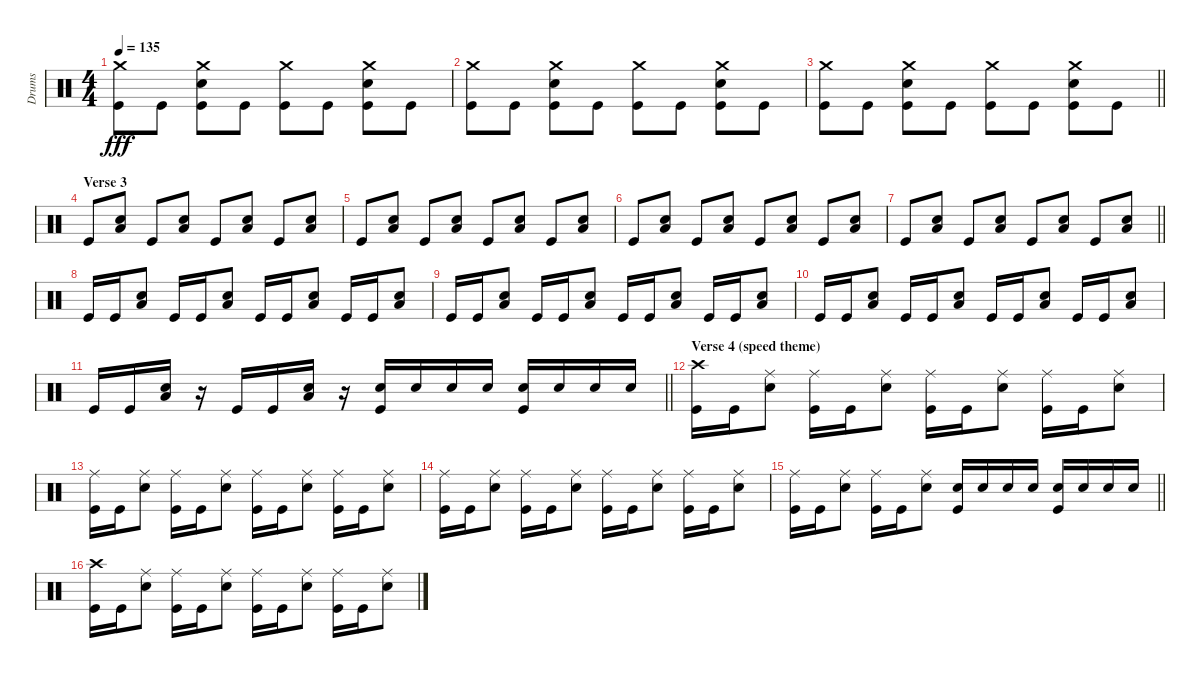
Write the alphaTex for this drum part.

\track ("Drums" "Drums") {instrument percussion}
\staff {score}
\articulation defaults
\ts (4 4)
\tempo 135
\clef neutral
\ks c
("Crash medium (hit)" "Kick (hit)").8{dy fff} "Kick (hit)".8 ("Crash medium (hit)" "Snare (hit) 2" "Kick (hit)").8 "Kick (hit)".8 ("Crash medium (hit)" "Kick (hit)").8 "Kick (hit)".8 ("Crash medium (hit)" "Snare (hit) 2" "Kick (hit)").8 "Kick (hit)".8 |
("Crash medium (hit)" "Kick (hit)").8 "Kick (hit)".8 ("Crash medium (hit)" "Snare (hit) 2" "Kick (hit)").8 "Kick (hit)".8 ("Crash medium (hit)" "Kick (hit)").8 "Kick (hit)".8 ("Crash medium (hit)" "Snare (hit) 2" "Kick (hit)").8 "Kick (hit)".8 |
\barLineRight lightlight
("Crash medium (hit)" "Kick (hit)").8 "Kick (hit)".8 ("Crash medium (hit)" "Snare (hit) 2" "Kick (hit)").8 "Kick (hit)".8 ("Crash medium (hit)" "Kick (hit)").8 "Kick (hit)".8 ("Crash medium (hit)" "Snare (hit) 2" "Kick (hit)").8 "Kick (hit)".8 |
\section ("" "Verse 3")
"Kick (hit)".8 ("Low Tom (hit)" "Snare (hit) 2").8 "Kick (hit)".8 ("Low Tom (hit)" "Snare (hit) 2").8 "Kick (hit)".8 ("Low Tom (hit)" "Snare (hit) 2").8 "Kick (hit)".8 ("Low Tom (hit)" "Snare (hit) 2").8 |
"Kick (hit)".8 ("Low Tom (hit)" "Snare (hit) 2").8 "Kick (hit)".8 ("Low Tom (hit)" "Snare (hit) 2").8 "Kick (hit)".8 ("Low Tom (hit)" "Snare (hit) 2").8 "Kick (hit)".8 ("Low Tom (hit)" "Snare (hit) 2").8 |
"Kick (hit)".8 ("Low Tom (hit)" "Snare (hit) 2").8 "Kick (hit)".8 ("Low Tom (hit)" "Snare (hit) 2").8 "Kick (hit)".8 ("Low Tom (hit)" "Snare (hit) 2").8 "Kick (hit)".8 ("Low Tom (hit)" "Snare (hit) 2").8 |
\barLineRight lightlight "Kick (hit)".8
("Low Tom (hit)" "Snare (hit) 2").8 "Kick (hit)".8 ("Low Tom (hit)" "Snare (hit) 2").8 "Kick (hit)".8 ("Low Tom (hit)" "Snare (hit) 2").8 "Kick (hit)".8 ("Low Tom (hit)" "Snare (hit) 2").8 |
"Kick (hit)".16 "Kick (hit)".16 ("Low Tom (hit)" "Snare (hit) 2").8 "Kick (hit)".16 "Kick (hit)".16 ("Low Tom (hit)" "Snare (hit) 2").8 "Kick (hit)".16 "Kick (hit)".16 ("Low Tom (hit)" "Snare (hit) 2").8 "Kick (hit)".16 "Kick (hit)".16 ("Low Tom (hit)" "Snare (hit) 2").8 |
"Kick (hit)".16 "Kick (hit)".16 ("Low Tom (hit)" "Snare (hit) 2").8 "Kick (hit)".16 "Kick (hit)".16 ("Low Tom (hit)" "Snare (hit) 2").8 "Kick (hit)".16 "Kick (hit)".16 ("Low Tom (hit)" "Snare (hit) 2").8 "Kick (hit)".16 "Kick (hit)".16 ("Low Tom (hit)" "Snare (hit) 2").8 |
"Kick (hit)".16 "Kick (hit)".16 ("Low Tom (hit)" "Snare (hit) 2").8 "Kick (hit)".16 "Kick (hit)".16 ("Low Tom (hit)" "Snare (hit) 2").8 "Kick (hit)".16 "Kick (hit)".16 ("Low Tom (hit)" "Snare (hit) 2").8 "Kick (hit)".16 "Kick (hit)".16 ("Low Tom (hit)" "Snare (hit) 2").8 |
\barLineRight lightlight "Kick (hit)".16 "Kick (hit)".16
("Low Tom (hit)" "Snare (hit) 2").16 r.16 "Kick (hit)".16 "Kick (hit)".16 ("Low Tom (hit)" "Snare (hit) 2").16 r.16 ("Snare (hit) 2" "Kick (hit)").16 "Snare (hit) 2".16 "Snare (hit) 2".16 "Snare (hit) 2".16 ("Snare (hit) 2" "Kick (hit)").16 "Snare (hit) 2".16 "Snare (hit) 2".16 "Snare (hit) 2".16 |
\section ("" "Verse 4 (speed theme)")
("Crash high (hit)" "Kick (hit)").16 "Kick (hit)".16 ("Ride (middle)" "Snare (hit) 2").8 ("Ride (middle)" "Kick (hit)").16 "Kick (hit)".16 ("Ride (middle)" "Snare (hit) 2").8 ("Ride (middle)" "Kick (hit)").16 "Kick (hit)".16 ("Ride (middle)" "Snare (hit) 2").8 ("Ride (middle)" "Kick (hit)").16 "Kick (hit)".16 ("Ride (middle)" "Snare (hit) 2").8 |
("Ride (middle)" "Kick (hit)").16 "Kick (hit)".16 ("Ride (middle)" "Snare (hit) 2").8 ("Ride (middle)" "Kick (hit)").16 "Kick (hit)".16 ("Ride (middle)" "Snare (hit) 2").8 ("Ride (middle)" "Kick (hit)").16 "Kick (hit)".16 ("Ride (middle)" "Snare (hit) 2").8 ("Ride (middle)" "Kick (hit)").16 "Kick (hit)".16 ("Ride (middle)" "Snare (hit) 2").8 |
("Ride (middle)" "Kick (hit)").16 "Kick (hit)".16 ("Ride (middle)" "Snare (hit) 2").8 ("Ride (middle)" "Kick (hit)").16 "Kick (hit)".16 ("Ride (middle)" "Snare (hit) 2").8 ("Ride (middle)" "Kick (hit)").16 "Kick (hit)".16 ("Ride (middle)" "Snare (hit) 2").8 ("Ride (middle)" "Kick (hit)").16 "Kick (hit)".16 ("Ride (middle)" "Snare (hit) 2").8 |
\barLineRight lightlight
("Ride (middle)" "Kick (hit)").16 "Kick (hit)".16 ("Ride (middle)" "Snare (hit) 2").8 ("Ride (middle)" "Kick (hit)").16 "Kick (hit)".16 ("Ride (middle)" "Snare (hit) 2").8 ("Snare (hit) 2" "Kick (hit)").16 "Snare (hit) 2".16 "Snare (hit) 2".16 "Snare (hit) 2".16 ("Snare (hit) 2" "Kick (hit)").16 "Snare (hit) 2".16 "Snare (hit) 2".16 "Snare (hit) 2".16 |
("Crash high (hit)" "Kick (hit)").16 "Kick (hit)".16 ("Ride (middle)" "Snare (hit) 2").8 ("Ride (middle)" "Kick (hit)").16 "Kick (hit)".16 ("Ride (middle)" "Snare (hit) 2").8 ("Ride (middle)" "Kick (hit)").16 "Kick (hit)".16 ("Ride (middle)" "Snare (hit) 2").8 ("Ride (middle)" "Kick (hit)").16 "Kick (hit)".16 ("Ride (middle)" "Snare (hit) 2").8
